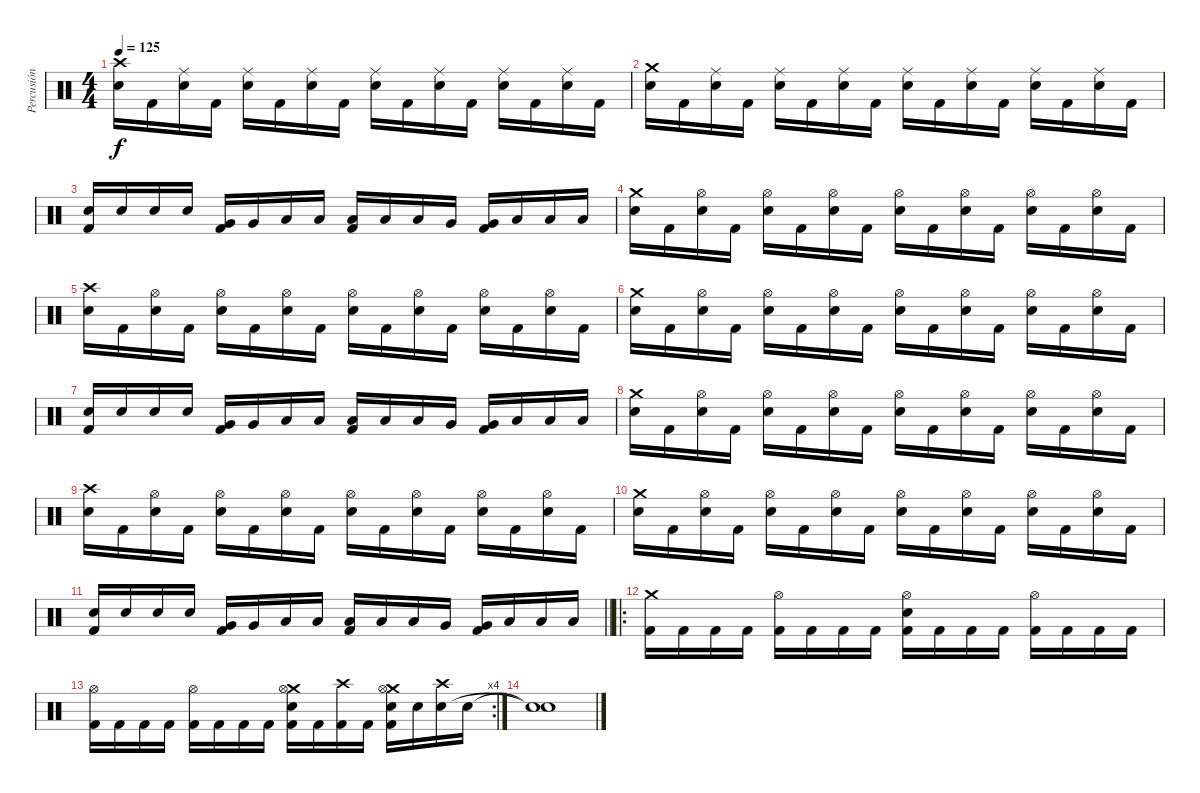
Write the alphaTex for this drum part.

\track ("Percusión" "Percusión") {instrument percussion}
\staff {score}
\articulation defaults
\ts (4 4)
\tempo 125
\clef neutral
\ks c
("Crash high (hit)" "Electric Snare (hit)").16{dy f} "Kick (hit) 2".16 ("Ride (middle)" "Electric Snare (hit)").16 "Kick (hit) 2".16 ("Ride (middle)" "Electric Snare (hit)").16 "Kick (hit) 2".16 ("Ride (middle)" "Electric Snare (hit)").16 "Kick (hit) 2".16 ("Ride (middle)" "Electric Snare (hit)").16 "Kick (hit) 2".16 ("Ride (middle)" "Electric Snare (hit)").16 "Kick (hit) 2".16 ("Ride (middle)" "Electric Snare (hit)").16 "Kick (hit) 2".16 ("Ride (middle)" "Electric Snare (hit)").16 "Kick (hit) 2".16 |
("Crash medium (hit)" "Electric Snare (hit)").16 "Kick (hit) 2".16 ("Ride (middle)" "Electric Snare (hit)").16 "Kick (hit) 2".16 ("Ride (middle)" "Electric Snare (hit)").16 "Kick (hit) 2".16 ("Ride (middle)" "Electric Snare (hit)").16 "Kick (hit) 2".16 ("Ride (middle)" "Electric Snare (hit)").16 "Kick (hit) 2".16 ("Ride (middle)" "Electric Snare (hit)").16 "Kick (hit) 2".16 ("Ride (middle)" "Electric Snare (hit)").16 "Kick (hit) 2".16 ("Ride (middle)" "Electric Snare (hit)").16 "Kick (hit) 2".16 |
("Electric Snare (hit)" "Kick (hit) 2").16 "Electric Snare (hit)".16 "Electric Snare (hit)".16 "Electric Snare (hit)".16 ("Very Low Tom (hit)" "Kick (hit) 2").16 "Very Low Tom (hit)".16 "Low Floor Tom (hit)".16 "Low Floor Tom (hit)".16 ("Low Tom (hit)" "Kick (hit) 2").16 "Low Tom (hit)".16 "Low Tom (hit)".16 "Very Low Tom (hit)".16 ("Very Low Tom (hit)" "Kick (hit) 2").16 "Low Floor Tom (hit)".16 "Low Floor Tom (hit)".16 "Low Floor Tom (hit)".16 |
("Crash medium (hit)" "Electric Snare (hit)").16 "Kick (hit) 2".16 ("Hi-Hat (open)" "Electric Snare (hit)").16 "Kick (hit) 2".16 ("Hi-Hat (open)" "Electric Snare (hit)").16 "Kick (hit) 2".16 ("Hi-Hat (open)" "Electric Snare (hit)").16 "Kick (hit) 2".16 ("Hi-Hat (open)" "Electric Snare (hit)").16 "Kick (hit) 2".16 ("Hi-Hat (open)" "Electric Snare (hit)").16 "Kick (hit) 2".16 ("Hi-Hat (open)" "Electric Snare (hit)").16 "Kick (hit) 2".16 ("Hi-Hat (open)" "Electric Snare (hit)").16 "Kick (hit) 2".16 |
("Crash high (hit)" "Electric Snare (hit)").16 "Kick (hit) 2".16 ("Hi-Hat (open)" "Electric Snare (hit)").16 "Kick (hit) 2".16 ("Hi-Hat (open)" "Electric Snare (hit)").16 "Kick (hit) 2".16 ("Hi-Hat (open)" "Electric Snare (hit)").16 "Kick (hit) 2".16 ("Hi-Hat (open)" "Electric Snare (hit)").16 "Kick (hit) 2".16 ("Hi-Hat (open)" "Electric Snare (hit)").16 "Kick (hit) 2".16 ("Hi-Hat (open)" "Electric Snare (hit)").16 "Kick (hit) 2".16 ("Hi-Hat (open)" "Electric Snare (hit)").16 "Kick (hit) 2".16 |
("Crash medium (hit)" "Electric Snare (hit)").16 "Kick (hit) 2".16 ("Hi-Hat (open)" "Electric Snare (hit)").16 "Kick (hit) 2".16 ("Hi-Hat (open)" "Electric Snare (hit)").16 "Kick (hit) 2".16 ("Hi-Hat (open)" "Electric Snare (hit)").16 "Kick (hit) 2".16 ("Hi-Hat (open)" "Electric Snare (hit)").16 "Kick (hit) 2".16 ("Hi-Hat (open)" "Electric Snare (hit)").16 "Kick (hit) 2".16 ("Hi-Hat (open)" "Electric Snare (hit)").16 "Kick (hit) 2".16 ("Hi-Hat (open)" "Electric Snare (hit)").16 "Kick (hit) 2".16 |
("Electric Snare (hit)" "Kick (hit) 2").16 "Electric Snare (hit)".16 "Electric Snare (hit)".16 "Electric Snare (hit)".16 ("Very Low Tom (hit)" "Kick (hit) 2").16 "Very Low Tom (hit)".16 "Low Floor Tom (hit)".16 "Low Floor Tom (hit)".16 ("Low Tom (hit)" "Kick (hit) 2").16 "Low Tom (hit)".16 "Low Tom (hit)".16 "Very Low Tom (hit)".16 ("Very Low Tom (hit)" "Kick (hit) 2").16 "Low Floor Tom (hit)".16 "Low Floor Tom (hit)".16 "Low Floor Tom (hit)".16 |
("Crash medium (hit)" "Electric Snare (hit)").16 "Kick (hit) 2".16 ("Hi-Hat (open)" "Electric Snare (hit)").16 "Kick (hit) 2".16 ("Hi-Hat (open)" "Electric Snare (hit)").16 "Kick (hit) 2".16 ("Hi-Hat (open)" "Electric Snare (hit)").16 "Kick (hit) 2".16 ("Hi-Hat (open)" "Electric Snare (hit)").16 "Kick (hit) 2".16 ("Hi-Hat (open)" "Electric Snare (hit)").16 "Kick (hit) 2".16 ("Hi-Hat (open)" "Electric Snare (hit)").16 "Kick (hit) 2".16 ("Hi-Hat (open)" "Electric Snare (hit)").16 "Kick (hit) 2".16 |
("Crash high (hit)" "Electric Snare (hit)").16 "Kick (hit) 2".16 ("Hi-Hat (open)" "Electric Snare (hit)").16 "Kick (hit) 2".16 ("Hi-Hat (open)" "Electric Snare (hit)").16 "Kick (hit) 2".16 ("Hi-Hat (open)" "Electric Snare (hit)").16 "Kick (hit) 2".16 ("Hi-Hat (open)" "Electric Snare (hit)").16 "Kick (hit) 2".16 ("Hi-Hat (open)" "Electric Snare (hit)").16 "Kick (hit) 2".16 ("Hi-Hat (open)" "Electric Snare (hit)").16 "Kick (hit) 2".16 ("Hi-Hat (open)" "Electric Snare (hit)").16 "Kick (hit) 2".16 |
("Crash medium (hit)" "Electric Snare (hit)").16 "Kick (hit) 2".16 ("Hi-Hat (open)" "Electric Snare (hit)").16 "Kick (hit) 2".16 ("Hi-Hat (open)" "Electric Snare (hit)").16 "Kick (hit) 2".16 ("Hi-Hat (open)" "Electric Snare (hit)").16 "Kick (hit) 2".16 ("Hi-Hat (open)" "Electric Snare (hit)").16 "Kick (hit) 2".16 ("Hi-Hat (open)" "Electric Snare (hit)").16 "Kick (hit) 2".16 ("Hi-Hat (open)" "Electric Snare (hit)").16 "Kick (hit) 2".16 ("Hi-Hat (open)" "Electric Snare (hit)").16 "Kick (hit) 2".16 |
\barLineRight lightlight
("Electric Snare (hit)" "Kick (hit) 2").16 "Electric Snare (hit)".16 "Electric Snare (hit)".16 "Electric Snare (hit)".16 ("Very Low Tom (hit)" "Kick (hit) 2").16 "Very Low Tom (hit)".16 "Low Floor Tom (hit)".16 "Low Floor Tom (hit)".16 ("Low Tom (hit)" "Kick (hit) 2").16 "Low Tom (hit)".16 "Low Tom (hit)".16 "Very Low Tom (hit)".16 ("Very Low Tom (hit)" "Kick (hit) 2").16 "Low Floor Tom (hit)".16 "Low Floor Tom (hit)".16 "Low Floor Tom (hit)".16 |
\ro
("Crash medium (hit)" "Kick (hit) 2").16 "Kick (hit) 2".16 "Kick (hit) 2".16 "Kick (hit) 2".16 ("Hi-Hat (open)" "Kick (hit) 2").16 "Kick (hit) 2".16 "Kick (hit) 2".16 "Kick (hit) 2".16 ("Hi-Hat (open)" "Electric Snare (hit)" "Kick (hit) 2").16 "Kick (hit) 2".16 "Kick (hit) 2".16 "Kick (hit) 2".16 ("Hi-Hat (open)" "Kick (hit) 2").16 "Kick (hit) 2".16 "Kick (hit) 2".16 "Kick (hit) 2".16 |
\rc 4
("Hi-Hat (open)" "Kick (hit) 2").16 "Kick (hit) 2".16 "Kick (hit) 2".16 "Kick (hit) 2".16 ("Hi-Hat (open)" "Kick (hit) 2").16 "Kick (hit) 2".16 "Kick (hit) 2".16 "Kick (hit) 2".16 ("Crash medium (hit)" "Hi-Hat (open)" "Electric Snare (hit)" "Kick (hit) 2").16 "Kick (hit) 2".16 ("Crash high (hit)" "Kick (hit) 2").16 "Kick (hit) 2".16 ("Crash medium (hit)" "Hi-Hat (open)" "Electric Snare (hit)" "Kick (hit) 2").16 "Electric Snare (hit)".16 ("Crash high (hit)" "Electric Snare (hit)").16 "Electric Snare (hit)".16 |
("Snare (hit)"{t} "Snare (hit)"{t}).1
